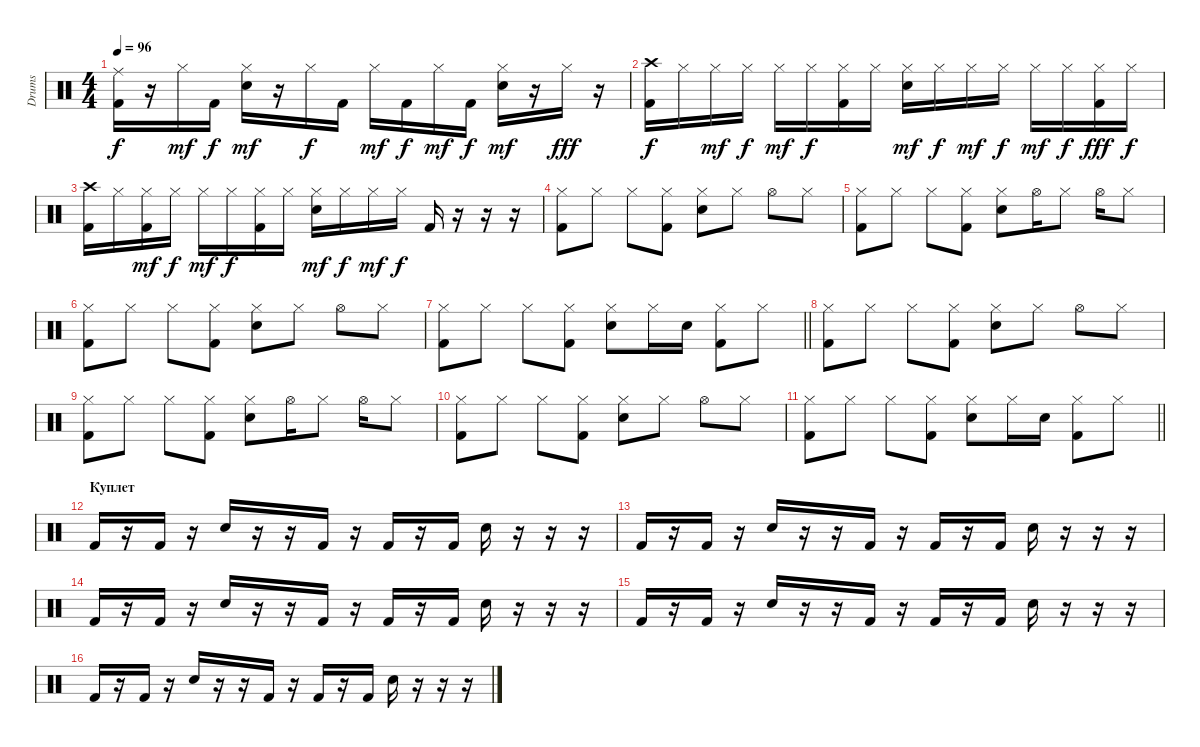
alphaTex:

\track ("Drums" "Drums") {instrument percussion}
\staff {score}
\articulation defaults
\ts (4 4)
\tempo 96
\clef neutral
\ks c
("Ride (middle)" "Kick (hit) 2").16{dy f} r.16 "Hi-Hat (closed)".16{dy mf} "Kick (hit) 2".16{dy f} ("Hi-Hat (closed)" "Electric Snare (hit)").16{dy mf} r.16 "Hi-Hat (closed)".16{dy f} "Kick (hit) 2".16 "Hi-Hat (closed)".16{dy mf} "Kick (hit) 2".16{dy f} "Hi-Hat (closed)".16{dy mf} "Kick (hit) 2".16{dy f} ("Hi-Hat (closed)" "Electric Snare (hit)").16{dy mf} r.16 "Hi-Hat (closed)".16{dy fff} r.16 |
("Crash high (hit)" "Kick (hit) 2").16{dy f} "Hi-Hat (closed)".16 "Hi-Hat (closed)".16{dy mf} "Hi-Hat (closed)".16{dy f} "Hi-Hat (closed)".16{dy mf} "Hi-Hat (closed)".16{dy f} ("Hi-Hat (closed)" "Kick (hit) 2").16 "Hi-Hat (closed)".16 ("Hi-Hat (closed)" "Electric Snare (hit)").16{dy mf} "Hi-Hat (closed)".16{dy f} "Hi-Hat (closed)".16{dy mf} "Hi-Hat (closed)".16{dy f} "Hi-Hat (closed)".16{dy mf} "Hi-Hat (closed)".16{dy f} ("Hi-Hat (closed)" "Kick (hit) 2").16{dy fff} "Hi-Hat (closed)".16{dy f} |
("Crash high (hit)" "Kick (hit) 2").16 "Hi-Hat (closed)".16 ("Hi-Hat (closed)" "Kick (hit) 2").16{dy mf} "Hi-Hat (closed)".16{dy f} "Hi-Hat (closed)".16{dy mf} "Hi-Hat (closed)".16{dy f} ("Hi-Hat (closed)" "Kick (hit) 2").16 "Hi-Hat (closed)".16 ("Hi-Hat (closed)" "Electric Snare (hit)").16{dy mf} "Hi-Hat (closed)".16{dy f} "Hi-Hat (closed)".16{dy mf} "Hi-Hat (closed)".16{dy f} "Kick (hit) 2".16 r.16 r.16 r.16 |
("Hi-Hat (closed)" "Kick (hit) 2").8 "Hi-Hat (closed)".8 "Hi-Hat (closed)".8 ("Hi-Hat (closed)" "Kick (hit) 2").8 ("Hi-Hat (closed)" "Electric Snare (hit)").8 "Hi-Hat (closed)".8 "Hi-Hat (open)".8 "Hi-Hat (closed)".8 |
("Hi-Hat (closed)" "Kick (hit) 2").8 "Hi-Hat (closed)".8 "Hi-Hat (closed)".8 ("Hi-Hat (closed)" "Kick (hit) 2").8 ("Hi-Hat (closed)" "Electric Snare (hit)").8 "Hi-Hat (open)".16 "Hi-Hat (closed)".8 "Hi-Hat (open)".16 "Hi-Hat (closed)".8 |
("Hi-Hat (closed)" "Kick (hit) 2").8 "Hi-Hat (closed)".8 "Hi-Hat (closed)".8 ("Hi-Hat (closed)" "Kick (hit) 2").8 ("Hi-Hat (closed)" "Electric Snare (hit)").8 "Hi-Hat (closed)".8 "Hi-Hat (open)".8 "Hi-Hat (closed)".8 |
\barLineRight lightlight
("Hi-Hat (closed)" "Kick (hit) 2").8 "Hi-Hat (closed)".8 "Hi-Hat (closed)".8 ("Hi-Hat (closed)" "Kick (hit) 2").8 ("Hi-Hat (closed)" "Electric Snare (hit)").8 "Hi-Hat (closed)".16 "Electric Snare (hit)".16 ("Hi-Hat (closed)" "Kick (hit) 2").8 "Hi-Hat (closed)".8 |
("Hi-Hat (closed)" "Kick (hit) 2").8 "Hi-Hat (closed)".8 "Hi-Hat (closed)".8 ("Hi-Hat (closed)" "Kick (hit) 2").8 ("Hi-Hat (closed)" "Electric Snare (hit)").8 "Hi-Hat (closed)".8 "Hi-Hat (open)".8 "Hi-Hat (closed)".8 |
("Hi-Hat (closed)" "Kick (hit) 2").8 "Hi-Hat (closed)".8 "Hi-Hat (closed)".8 ("Hi-Hat (closed)" "Kick (hit) 2").8 ("Hi-Hat (closed)" "Electric Snare (hit)").8 "Hi-Hat (open)".16 "Hi-Hat (closed)".8 "Hi-Hat (open)".16 "Hi-Hat (closed)".8 |
("Hi-Hat (closed)" "Kick (hit) 2").8 "Hi-Hat (closed)".8 "Hi-Hat (closed)".8 ("Hi-Hat (closed)" "Kick (hit) 2").8 ("Hi-Hat (closed)" "Electric Snare (hit)").8 "Hi-Hat (closed)".8 "Hi-Hat (open)".8 "Hi-Hat (closed)".8 |
\barLineRight lightlight
("Hi-Hat (closed)" "Kick (hit) 2").8 "Hi-Hat (closed)".8 "Hi-Hat (closed)".8 ("Hi-Hat (closed)" "Kick (hit) 2").8 ("Hi-Hat (closed)" "Electric Snare (hit)").8 "Hi-Hat (closed)".16 "Electric Snare (hit)".16 ("Hi-Hat (closed)" "Kick (hit) 2").8 "Hi-Hat (closed)".8 |
\section ("" "Куплет")
"Kick (hit) 2".16 r.16 "Kick (hit) 2".16 r.16 "Electric Snare (hit)".16 r.16 r.16 "Kick (hit) 2".16 r.16 "Kick (hit) 2".16 r.16 "Kick (hit) 2".16 "Electric Snare (hit)".16 r.16 r.16 r.16 |
"Kick (hit) 2".16 r.16 "Kick (hit) 2".16 r.16 "Electric Snare (hit)".16 r.16 r.16 "Kick (hit) 2".16 r.16 "Kick (hit) 2".16 r.16 "Kick (hit) 2".16 "Electric Snare (hit)".16 r.16 r.16 r.16 |
"Kick (hit) 2".16 r.16 "Kick (hit) 2".16 r.16 "Electric Snare (hit)".16 r.16 r.16 "Kick (hit) 2".16 r.16 "Kick (hit) 2".16 r.16 "Kick (hit) 2".16 "Electric Snare (hit)".16 r.16 r.16 r.16 |
"Kick (hit) 2".16 r.16 "Kick (hit) 2".16 r.16 "Electric Snare (hit)".16 r.16 r.16 "Kick (hit) 2".16 r.16 "Kick (hit) 2".16 r.16 "Kick (hit) 2".16 "Electric Snare (hit)".16 r.16 r.16 r.16 |
"Kick (hit) 2".16 r.16 "Kick (hit) 2".16 r.16 "Electric Snare (hit)".16 r.16 r.16 "Kick (hit) 2".16 r.16 "Kick (hit) 2".16 r.16 "Kick (hit) 2".16 "Electric Snare (hit)".16 r.16 r.16 r.16
